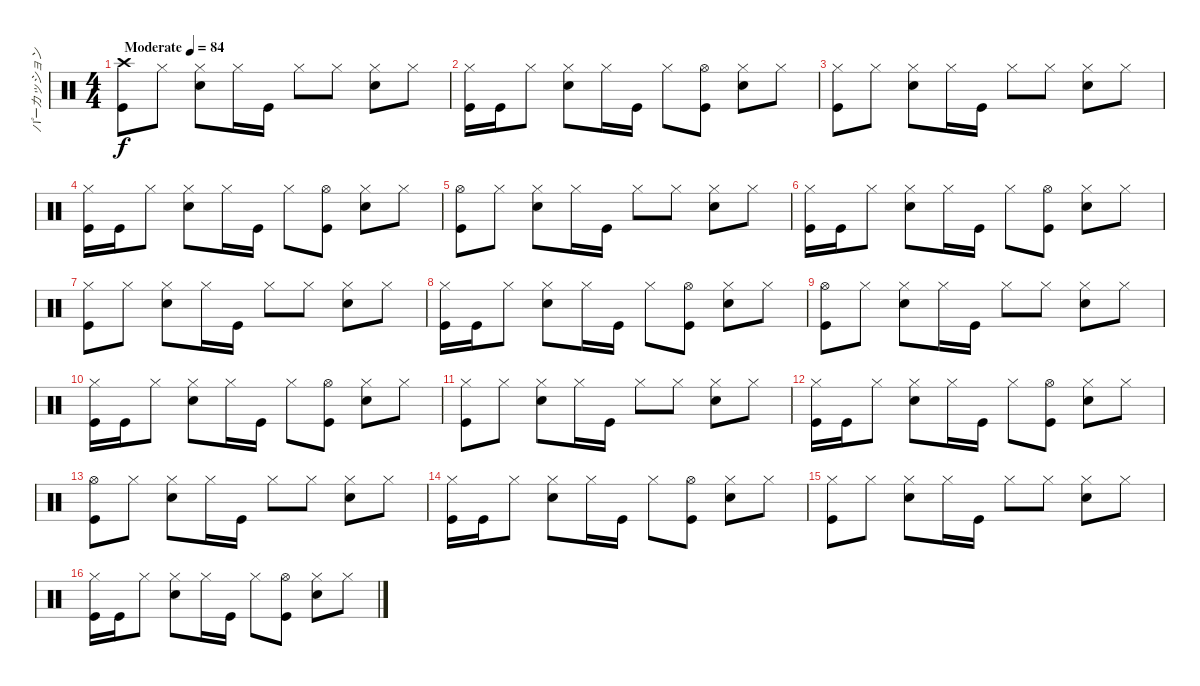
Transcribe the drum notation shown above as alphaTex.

\track ("パーカッション" "パーカッション") {instrument percussion}
\staff {score}
\articulation defaults
\ts (4 4)
\tempo (84 "Moderate")
\clef neutral
\ks c
("Crash high (hit)" "Kick (hit)").8{dy f} "Hi-Hat (closed)".8 ("Snare (hit) 2" "Hi-Hat (closed)").8 "Hi-Hat (closed)".16 "Kick (hit)".16 "Hi-Hat (closed)".8 "Hi-Hat (closed)".8 ("Hi-Hat (closed)" "Snare (hit) 2").8 "Hi-Hat (closed)".8 |
("Hi-Hat (closed)" "Kick (hit)").16 "Kick (hit)".16 "Hi-Hat (closed)".8 ("Hi-Hat (closed)" "Snare (hit) 2").8 "Hi-Hat (closed)".16 "Kick (hit)".16 "Hi-Hat (closed)".8 ("Hi-Hat (open)" "Kick (hit)").8 ("Snare (hit) 2" "Hi-Hat (closed)").8 "Hi-Hat (closed)".8 |
("Hi-Hat (closed)" "Kick (hit)").8 "Hi-Hat (closed)".8 ("Snare (hit) 2" "Hi-Hat (closed)").8 "Hi-Hat (closed)".16 "Kick (hit)".16 "Hi-Hat (closed)".8 "Hi-Hat (closed)".8 ("Hi-Hat (closed)" "Snare (hit) 2").8 "Hi-Hat (closed)".8 |
("Hi-Hat (closed)" "Kick (hit)").16 "Kick (hit)".16 "Hi-Hat (closed)".8 ("Hi-Hat (closed)" "Snare (hit) 2").8 "Hi-Hat (closed)".16 "Kick (hit)".16 "Hi-Hat (closed)".8 ("Kick (hit)" "Hi-Hat (open)").8 ("Snare (hit) 2" "Hi-Hat (closed)").8 "Hi-Hat (closed)".8 |
("Hi-Hat (open)" "Kick (hit)").8 "Hi-Hat (closed)".8 ("Snare (hit) 2" "Hi-Hat (closed)").8 "Hi-Hat (closed)".16 "Kick (hit)".16 "Hi-Hat (closed)".8 "Hi-Hat (closed)".8 ("Hi-Hat (closed)" "Snare (hit) 2").8 "Hi-Hat (closed)".8 |
("Hi-Hat (closed)" "Kick (hit)").16 "Kick (hit)".16 "Hi-Hat (closed)".8 ("Hi-Hat (closed)" "Snare (hit) 2").8 "Hi-Hat (closed)".16 "Kick (hit)".16 "Hi-Hat (closed)".8 ("Kick (hit)" "Hi-Hat (open)").8 ("Snare (hit) 2" "Hi-Hat (closed)").8 "Hi-Hat (closed)".8 |
("Hi-Hat (closed)" "Kick (hit)").8 "Hi-Hat (closed)".8 ("Snare (hit) 2" "Hi-Hat (closed)").8 "Hi-Hat (closed)".16 "Kick (hit)".16 "Hi-Hat (closed)".8 "Hi-Hat (closed)".8 ("Hi-Hat (closed)" "Snare (hit) 2").8 "Hi-Hat (closed)".8 |
("Hi-Hat (closed)" "Kick (hit)").16 "Kick (hit)".16 "Hi-Hat (closed)".8 ("Hi-Hat (closed)" "Snare (hit) 2").8 "Hi-Hat (closed)".16 "Kick (hit)".16 "Hi-Hat (closed)".8 ("Kick (hit)" "Hi-Hat (open)").8 ("Snare (hit) 2" "Hi-Hat (closed)").8 "Hi-Hat (closed)".8 |
("Hi-Hat (open)" "Kick (hit)").8 "Hi-Hat (closed)".8 ("Snare (hit) 2" "Hi-Hat (closed)").8 "Hi-Hat (closed)".16 "Kick (hit)".16 "Hi-Hat (closed)".8 "Hi-Hat (closed)".8 ("Hi-Hat (closed)" "Snare (hit) 2").8 "Hi-Hat (closed)".8 |
("Hi-Hat (closed)" "Kick (hit)").16 "Kick (hit)".16 "Hi-Hat (closed)".8 ("Hi-Hat (closed)" "Snare (hit) 2").8 "Hi-Hat (closed)".16 "Kick (hit)".16 "Hi-Hat (closed)".8 ("Kick (hit)" "Hi-Hat (open)").8 ("Snare (hit) 2" "Hi-Hat (closed)").8 "Hi-Hat (closed)".8 |
("Hi-Hat (closed)" "Kick (hit)").8 "Hi-Hat (closed)".8 ("Snare (hit) 2" "Hi-Hat (closed)").8 "Hi-Hat (closed)".16 "Kick (hit)".16 "Hi-Hat (closed)".8 "Hi-Hat (closed)".8 ("Hi-Hat (closed)" "Snare (hit) 2").8 "Hi-Hat (closed)".8 |
("Hi-Hat (closed)" "Kick (hit)").16 "Kick (hit)".16 "Hi-Hat (closed)".8 ("Hi-Hat (closed)" "Snare (hit) 2").8 "Hi-Hat (closed)".16 "Kick (hit)".16 "Hi-Hat (closed)".8 ("Kick (hit)" "Hi-Hat (open)").8 ("Snare (hit) 2" "Hi-Hat (closed)").8 "Hi-Hat (closed)".8 |
("Hi-Hat (open)" "Kick (hit)").8 "Hi-Hat (closed)".8 ("Snare (hit) 2" "Hi-Hat (closed)").8 "Hi-Hat (closed)".16 "Kick (hit)".16 "Hi-Hat (closed)".8 "Hi-Hat (closed)".8 ("Hi-Hat (closed)" "Snare (hit) 2").8 "Hi-Hat (closed)".8 |
("Hi-Hat (closed)" "Kick (hit)").16 "Kick (hit)".16 "Hi-Hat (closed)".8 ("Hi-Hat (closed)" "Snare (hit) 2").8 "Hi-Hat (closed)".16 "Kick (hit)".16 "Hi-Hat (closed)".8 ("Kick (hit)" "Hi-Hat (open)").8 ("Snare (hit) 2" "Hi-Hat (closed)").8 "Hi-Hat (closed)".8 |
("Hi-Hat (closed)" "Kick (hit)").8 "Hi-Hat (closed)".8 ("Snare (hit) 2" "Hi-Hat (closed)").8 "Hi-Hat (closed)".16 "Kick (hit)".16 "Hi-Hat (closed)".8 "Hi-Hat (closed)".8 ("Hi-Hat (closed)" "Snare (hit) 2").8 "Hi-Hat (closed)".8 |
("Hi-Hat (closed)" "Kick (hit)").16 "Kick (hit)".16 "Hi-Hat (closed)".8 ("Hi-Hat (closed)" "Snare (hit) 2").8 "Hi-Hat (closed)".16 "Kick (hit)".16 "Hi-Hat (closed)".8 ("Kick (hit)" "Hi-Hat (open)").8 ("Snare (hit) 2" "Hi-Hat (closed)").8 "Hi-Hat (closed)".8
